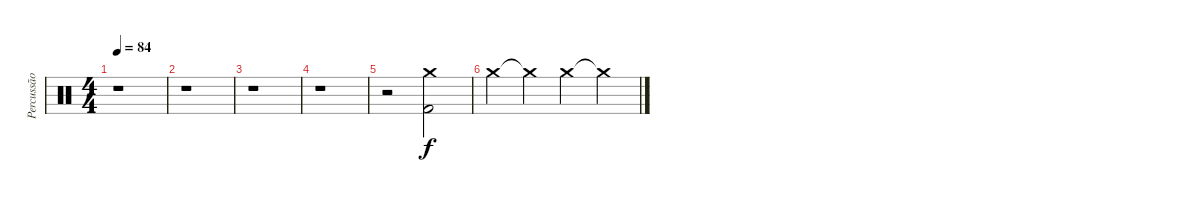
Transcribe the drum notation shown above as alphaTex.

\track ("Percussão" "Percussão") {instrument percussion}
\staff {score}
\articulation defaults
\ts (4 4)
\tempo 84
\clef neutral
\ks c
r.1{dy f} |
r.1 |
r.1 |
r.1 |
r.2 ("Crash medium (hit)" "Kick (hit) 2").2 |
"Crash medium (hit)".4 "Crash medium (hit)"{t}.4 "Crash medium (hit)".4 "Crash medium (hit)"{t}.4
